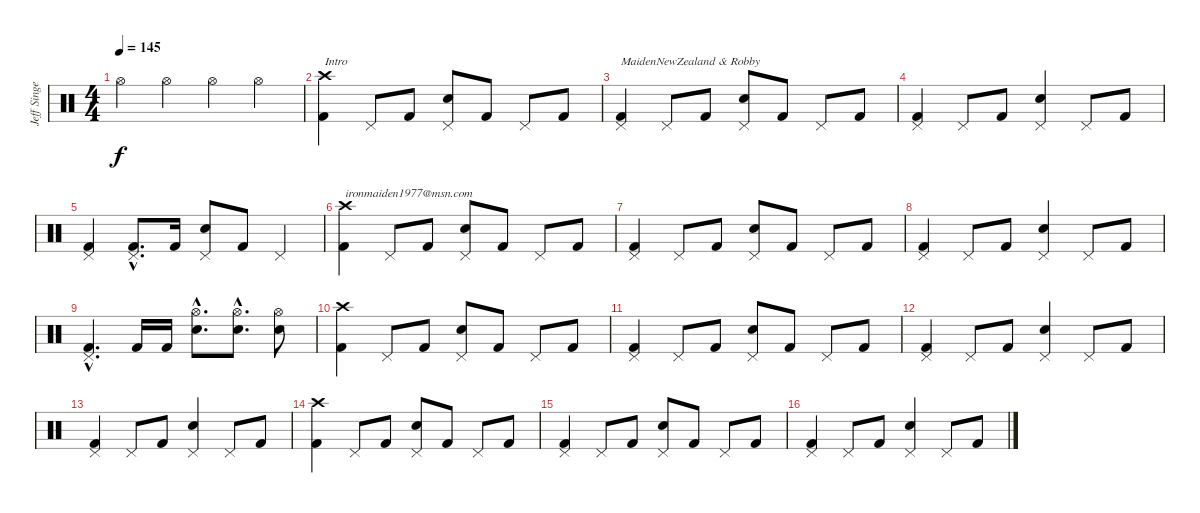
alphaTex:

\track ("Jeff Singer" "Jeff Singe") {instrument percussion}
\staff {score}
\articulation defaults
\ts (4 4)
\tempo 145
\clef neutral
\ks c "Hi-Hat (open)".4{dy f} "Hi-Hat (open)".4 "Hi-Hat (open)".4 "Hi-Hat (open)".4
|
("Crash high (hit)" "Kick (hit) 2").4{txt "Intro"} "Pedal Hi-Hat (hit)".8 "Kick (hit) 2".8 ("Pedal Hi-Hat (hit)" "Electric Snare (hit)").8 "Kick (hit) 2".8 "Pedal Hi-Hat (hit)".8 "Kick (hit) 2".8 |
("Pedal Hi-Hat (hit)" "Kick (hit) 2").4{txt "MaidenNewZealand & Robby"} "Pedal Hi-Hat (hit)".8 "Kick (hit) 2".8 ("Pedal Hi-Hat (hit)" "Electric Snare (hit)").8 "Kick (hit) 2".8 "Pedal Hi-Hat (hit)".8 "Kick (hit) 2".8 |
("Pedal Hi-Hat (hit)" "Kick (hit) 2").4 "Pedal Hi-Hat (hit)".8 "Kick (hit) 2".8 ("Pedal Hi-Hat (hit)" "Electric Snare (hit)").4 "Pedal Hi-Hat (hit)".8 "Kick (hit) 2".8 |
("Pedal Hi-Hat (hit)" "Kick (hit) 2").4 ("Pedal Hi-Hat (hit)"{hac} "Kick (hit) 2"{hac}).8{d} "Kick (hit) 2".16 ("Pedal Hi-Hat (hit)" "Electric Snare (hit)").8 "Kick (hit) 2".8 "Pedal Hi-Hat (hit)".4 |
("Crash high (hit)" "Kick (hit) 2").4{txt "ironmaiden1977@msn.com"} "Pedal Hi-Hat (hit)".8 "Kick (hit) 2".8 ("Pedal Hi-Hat (hit)" "Electric Snare (hit)").8 "Kick (hit) 2".8 "Pedal Hi-Hat (hit)".8 "Kick (hit) 2".8 |
("Pedal Hi-Hat (hit)" "Kick (hit) 2").4 "Pedal Hi-Hat (hit)".8 "Kick (hit) 2".8 ("Pedal Hi-Hat (hit)" "Electric Snare (hit)").8 "Kick (hit) 2".8 "Pedal Hi-Hat (hit)".8 "Kick (hit) 2".8 |
("Pedal Hi-Hat (hit)" "Kick (hit) 2").4 "Pedal Hi-Hat (hit)".8 "Kick (hit) 2".8 ("Pedal Hi-Hat (hit)" "Electric Snare (hit)").4 "Pedal Hi-Hat (hit)".8 "Kick (hit) 2".8 |
("Pedal Hi-Hat (hit)"{hac} "Kick (hit) 2"{hac}).4{d} "Kick (hit) 2".16 "Kick (hit) 2".16 ("Hi-Hat (open)"{hac} "Electric Snare (hit)"{hac}).8{d} ("Hi-Hat (open)"{hac} "Electric Snare (hit)"{hac}).8{d} ("Hi-Hat (open)" "Electric Snare (hit)").8 |
("Crash high (hit)" "Kick (hit) 2").4 "Pedal Hi-Hat (hit)".8 "Kick (hit) 2".8 ("Pedal Hi-Hat (hit)" "Electric Snare (hit)").8 "Kick (hit) 2".8 "Pedal Hi-Hat (hit)".8 "Kick (hit) 2".8 |
("Pedal Hi-Hat (hit)" "Kick (hit) 2").4 "Pedal Hi-Hat (hit)".8 "Kick (hit) 2".8 ("Pedal Hi-Hat (hit)" "Electric Snare (hit)").8 "Kick (hit) 2".8 "Pedal Hi-Hat (hit)".8 "Kick (hit) 2".8 |
("Pedal Hi-Hat (hit)" "Kick (hit) 2").4 "Pedal Hi-Hat (hit)".8 "Kick (hit) 2".8 ("Pedal Hi-Hat (hit)" "Electric Snare (hit)").4 "Pedal Hi-Hat (hit)".8 "Kick (hit) 2".8 |
("Pedal Hi-Hat (hit)" "Kick (hit) 2").4 "Pedal Hi-Hat (hit)".8 "Kick (hit) 2".8 ("Pedal Hi-Hat (hit)" "Electric Snare (hit)").4 "Pedal Hi-Hat (hit)".8 "Kick (hit) 2".8 |
("Crash high (hit)" "Kick (hit) 2").4 "Pedal Hi-Hat (hit)".8 "Kick (hit) 2".8 ("Pedal Hi-Hat (hit)" "Electric Snare (hit)").8 "Kick (hit) 2".8 "Pedal Hi-Hat (hit)".8 "Kick (hit) 2".8 |
("Pedal Hi-Hat (hit)" "Kick (hit) 2").4 "Pedal Hi-Hat (hit)".8 "Kick (hit) 2".8 ("Pedal Hi-Hat (hit)" "Electric Snare (hit)").8 "Kick (hit) 2".8 "Pedal Hi-Hat (hit)".8 "Kick (hit) 2".8 |
("Pedal Hi-Hat (hit)" "Kick (hit) 2").4 "Pedal Hi-Hat (hit)".8 "Kick (hit) 2".8 ("Pedal Hi-Hat (hit)" "Electric Snare (hit)").4 "Pedal Hi-Hat (hit)".8 "Kick (hit) 2".8
